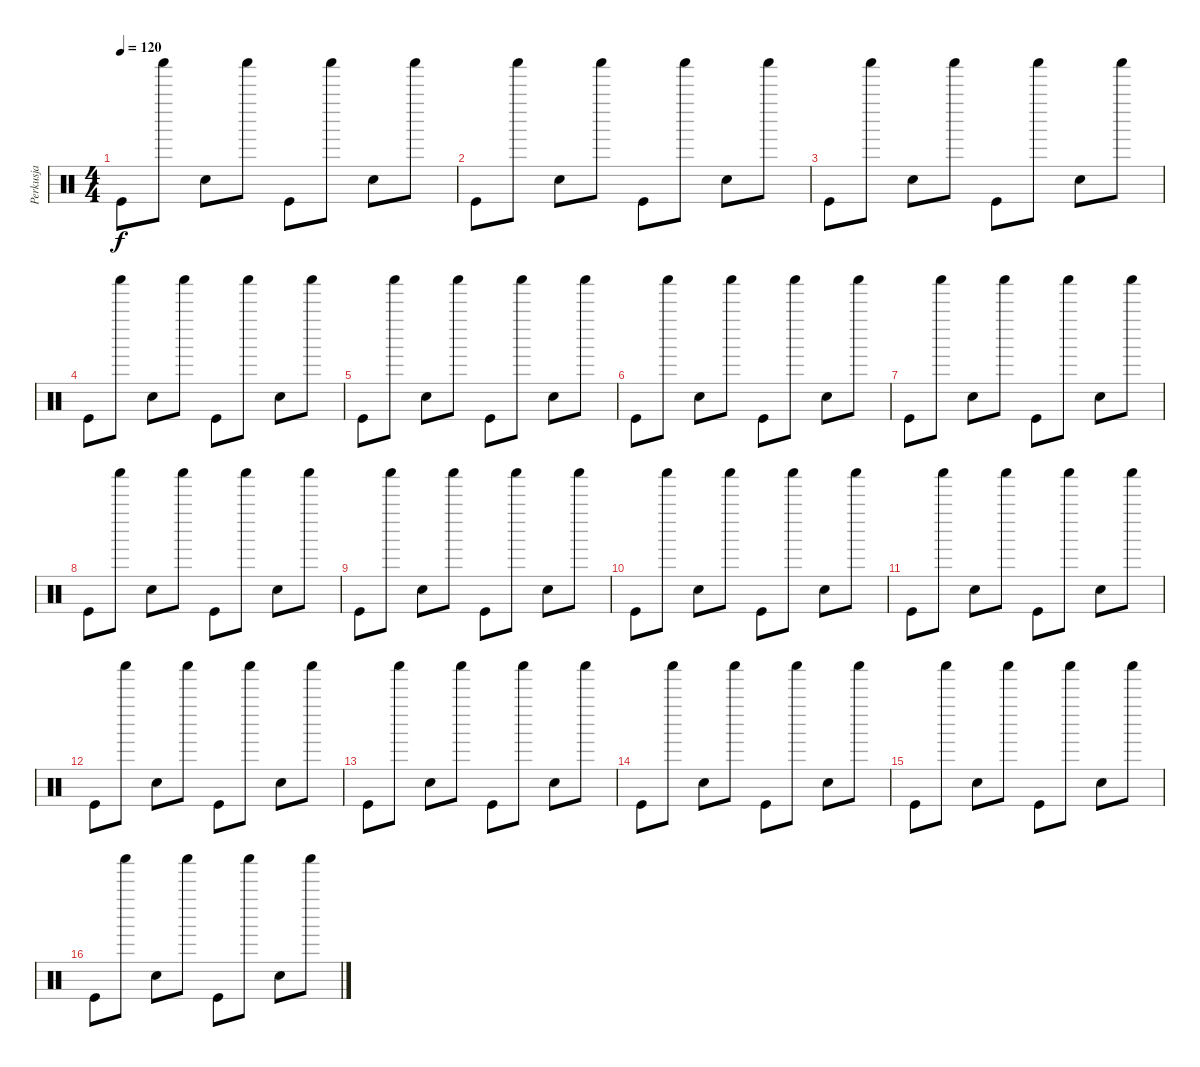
\track ("Perkusja" "Perkusja") {instrument percussion}
\staff {score}
\articulation defaults
\ts (4 4)
\tempo 120
\clef neutral
\ks c "Kick (hit)".8{dy f} "Shaker (hit)".8 "Electric Snare (hit)".8 "Shaker (hit)".8 "Kick (hit)".8 "Shaker (hit)".8 "Electric Snare (hit)".8 "Shaker (hit)".8
|
"Kick (hit)".8 "Shaker (hit)".8 "Electric Snare (hit)".8 "Shaker (hit)".8 "Kick (hit)".8 "Shaker (hit)".8 "Electric Snare (hit)".8 "Shaker (hit)".8 |
"Kick (hit)".8 "Shaker (hit)".8 "Electric Snare (hit)".8 "Shaker (hit)".8 "Kick (hit)".8 "Shaker (hit)".8 "Electric Snare (hit)".8 "Shaker (hit)".8 |
"Kick (hit)".8 "Shaker (hit)".8 "Electric Snare (hit)".8 "Shaker (hit)".8 "Kick (hit)".8 "Shaker (hit)".8 "Electric Snare (hit)".8 "Shaker (hit)".8 |
"Kick (hit)".8 "Shaker (hit)".8 "Electric Snare (hit)".8 "Shaker (hit)".8 "Kick (hit)".8 "Shaker (hit)".8 "Electric Snare (hit)".8 "Shaker (hit)".8 |
"Kick (hit)".8 "Shaker (hit)".8 "Electric Snare (hit)".8 "Shaker (hit)".8 "Kick (hit)".8 "Shaker (hit)".8 "Electric Snare (hit)".8 "Shaker (hit)".8 |
"Kick (hit)".8 "Shaker (hit)".8 "Electric Snare (hit)".8 "Shaker (hit)".8 "Kick (hit)".8 "Shaker (hit)".8 "Electric Snare (hit)".8 "Shaker (hit)".8 |
"Kick (hit)".8 "Shaker (hit)".8 "Electric Snare (hit)".8 "Shaker (hit)".8 "Kick (hit)".8 "Shaker (hit)".8 "Electric Snare (hit)".8 "Shaker (hit)".8 |
"Kick (hit)".8 "Shaker (hit)".8 "Electric Snare (hit)".8 "Shaker (hit)".8 "Kick (hit)".8 "Shaker (hit)".8 "Electric Snare (hit)".8 "Shaker (hit)".8 |
"Kick (hit)".8 "Shaker (hit)".8 "Electric Snare (hit)".8 "Shaker (hit)".8 "Kick (hit)".8 "Shaker (hit)".8 "Electric Snare (hit)".8 "Shaker (hit)".8 |
"Kick (hit)".8 "Shaker (hit)".8 "Electric Snare (hit)".8 "Shaker (hit)".8 "Kick (hit)".8 "Shaker (hit)".8 "Electric Snare (hit)".8 "Shaker (hit)".8 |
"Kick (hit)".8 "Shaker (hit)".8 "Electric Snare (hit)".8 "Shaker (hit)".8 "Kick (hit)".8 "Shaker (hit)".8 "Electric Snare (hit)".8 "Shaker (hit)".8 |
"Kick (hit)".8 "Shaker (hit)".8 "Electric Snare (hit)".8 "Shaker (hit)".8 "Kick (hit)".8 "Shaker (hit)".8 "Electric Snare (hit)".8 "Shaker (hit)".8 |
"Kick (hit)".8 "Shaker (hit)".8 "Electric Snare (hit)".8 "Shaker (hit)".8 "Kick (hit)".8 "Shaker (hit)".8 "Electric Snare (hit)".8 "Shaker (hit)".8 |
"Kick (hit)".8 "Shaker (hit)".8 "Electric Snare (hit)".8 "Shaker (hit)".8 "Kick (hit)".8 "Shaker (hit)".8 "Electric Snare (hit)".8 "Shaker (hit)".8 |
"Kick (hit)".8 "Shaker (hit)".8 "Electric Snare (hit)".8 "Shaker (hit)".8 "Kick (hit)".8 "Shaker (hit)".8 "Electric Snare (hit)".8 "Shaker (hit)".8
